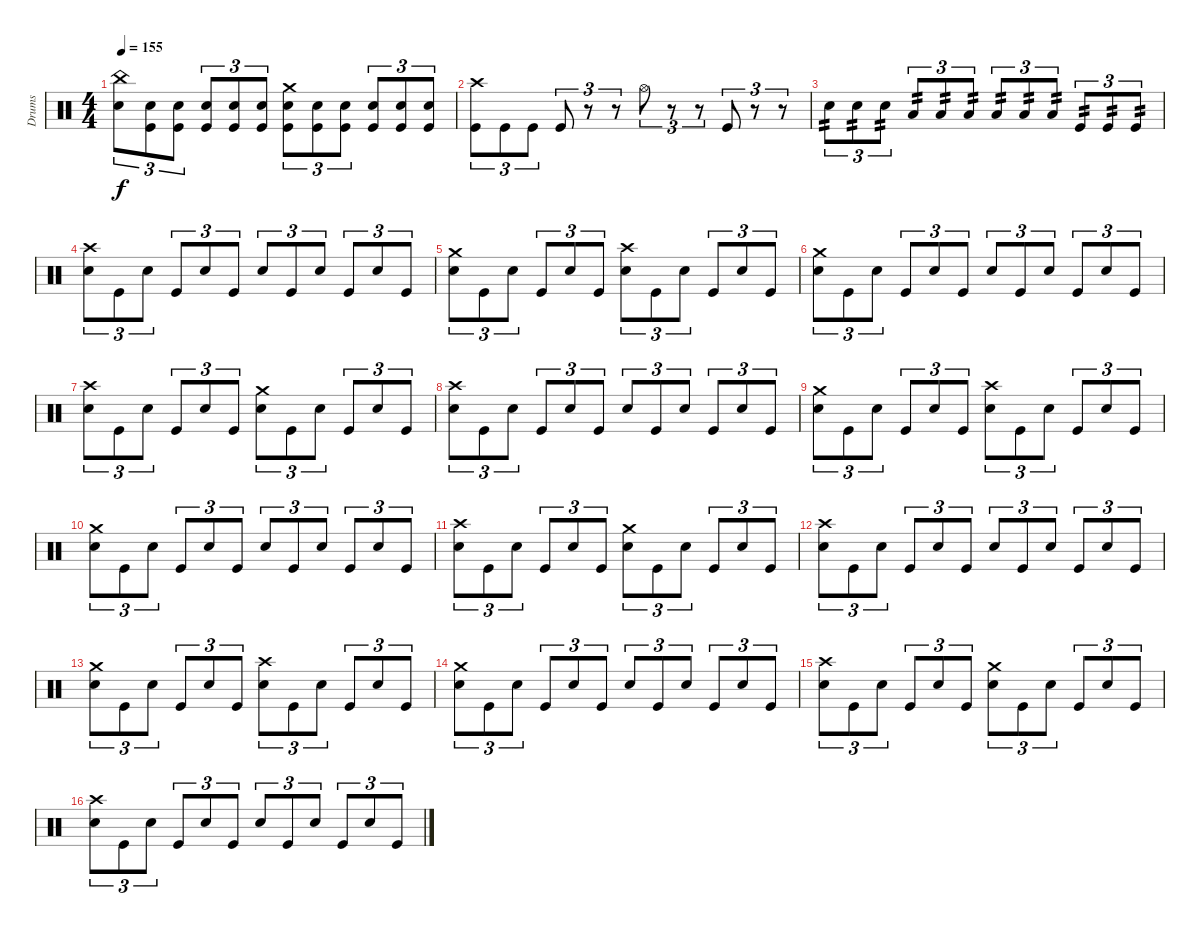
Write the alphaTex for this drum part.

\track ("Drums" "Drums") {instrument percussion}
\staff {score}
\articulation defaults
\ts (4 4)
\tempo 155
\clef neutral
\ks c
("China (hit)" "Electric Snare (hit)").8{tu (3 2) dy f} ("Electric Snare (hit)" "Kick (hit)").8{tu (3 2)} ("Electric Snare (hit)" "Kick (hit)").8{tu (3 2)} ("Electric Snare (hit)" "Kick (hit)").8{tu (3 2)} ("Electric Snare (hit)" "Kick (hit)").8{tu (3 2)} ("Electric Snare (hit)" "Kick (hit)").8{tu (3 2)} ("Crash medium (hit)" "Electric Snare (hit)" "Kick (hit)").8{tu (3 2)} ("Electric Snare (hit)" "Kick (hit)").8{tu (3 2)} ("Electric Snare (hit)" "Kick (hit)").8{tu (3 2)} ("Electric Snare (hit)" "Kick (hit)").8{tu (3 2)} ("Electric Snare (hit)" "Kick (hit)").8{tu (3 2)} ("Electric Snare (hit)" "Kick (hit)").8{tu (3 2)} |
("Crash high (hit)" "Kick (hit)").8{tu (3 2)} "Kick (hit)".8{tu (3 2)} "Kick (hit)".8{tu (3 2)} "Kick (hit)".8{tu (3 2)} r.8{tu (3 2)} r.8{tu (3 2)} "Hi-Hat (open)".8{tu (3 2)} r.8{tu (3 2)} r.8{tu (3 2)} "Kick (hit)".8{tu (3 2)} r.8{tu (3 2)} r.8{tu (3 2)} |
"Electric Snare (hit)".8{tu (3 2) tp 2} "Electric Snare (hit)".8{tu (3 2) tp 2} "Electric Snare (hit)".8{tu (3 2) tp 2} "Low Tom (hit)".8{tu (3 2) tp 2} "Low Tom (hit)".8{tu (3 2) tp 2} "Low Tom (hit)".8{tu (3 2) tp 2} "Low Floor Tom (hit)".8{tu (3 2) tp 2} "Low Floor Tom (hit)".8{tu (3 2) tp 2} "Low Floor Tom (hit)".8{tu (3 2) tp 2} "Kick (hit)".8{tu (3 2) tp 2} "Kick (hit)".8{tu (3 2) tp 2} "Kick (hit)".8{tu (3 2) tp 2} |
("Crash high (hit)" "Electric Snare (hit)").8{tu (3 2)} "Kick (hit)".8{tu (3 2)} "Electric Snare (hit)".8{tu (3 2)} "Kick (hit)".8{tu (3 2)} "Electric Snare (hit)".8{tu (3 2)} "Kick (hit)".8{tu (3 2)} "Electric Snare (hit)".8{tu (3 2)} "Kick (hit)".8{tu (3 2)} "Electric Snare (hit)".8{tu (3 2)} "Kick (hit)".8{tu (3 2)} "Electric Snare (hit)".8{tu (3 2)} "Kick (hit)".8{tu (3 2)} |
("Crash medium (hit)" "Electric Snare (hit)").8{tu (3 2)} "Kick (hit)".8{tu (3 2)} "Electric Snare (hit)".8{tu (3 2)} "Kick (hit)".8{tu (3 2)} "Electric Snare (hit)".8{tu (3 2)} "Kick (hit)".8{tu (3 2)} ("Crash high (hit)" "Electric Snare (hit)").8{tu (3 2)} "Kick (hit)".8{tu (3 2)} "Electric Snare (hit)".8{tu (3 2)} "Kick (hit)".8{tu (3 2)} "Electric Snare (hit)".8{tu (3 2)} "Kick (hit)".8{tu (3 2)} |
("Crash medium (hit)" "Electric Snare (hit)").8{tu (3 2)} "Kick (hit)".8{tu (3 2)} "Electric Snare (hit)".8{tu (3 2)} "Kick (hit)".8{tu (3 2)} "Electric Snare (hit)".8{tu (3 2)} "Kick (hit)".8{tu (3 2)} "Electric Snare (hit)".8{tu (3 2)} "Kick (hit)".8{tu (3 2)} "Electric Snare (hit)".8{tu (3 2)} "Kick (hit)".8{tu (3 2)} "Electric Snare (hit)".8{tu (3 2)} "Kick (hit)".8{tu (3 2)} |
("Crash high (hit)" "Electric Snare (hit)").8{tu (3 2)} "Kick (hit)".8{tu (3 2)} "Electric Snare (hit)".8{tu (3 2)} "Kick (hit)".8{tu (3 2)} "Electric Snare (hit)".8{tu (3 2)} "Kick (hit)".8{tu (3 2)} ("Crash medium (hit)" "Electric Snare (hit)").8{tu (3 2)} "Kick (hit)".8{tu (3 2)} "Electric Snare (hit)".8{tu (3 2)} "Kick (hit)".8{tu (3 2)} "Electric Snare (hit)".8{tu (3 2)} "Kick (hit)".8{tu (3 2)} |
("Crash high (hit)" "Electric Snare (hit)").8{tu (3 2)} "Kick (hit)".8{tu (3 2)} "Electric Snare (hit)".8{tu (3 2)} "Kick (hit)".8{tu (3 2)} "Electric Snare (hit)".8{tu (3 2)} "Kick (hit)".8{tu (3 2)} "Electric Snare (hit)".8{tu (3 2)} "Kick (hit)".8{tu (3 2)} "Electric Snare (hit)".8{tu (3 2)} "Kick (hit)".8{tu (3 2)} "Electric Snare (hit)".8{tu (3 2)} "Kick (hit)".8{tu (3 2)} |
("Crash medium (hit)" "Electric Snare (hit)").8{tu (3 2)} "Kick (hit)".8{tu (3 2)} "Electric Snare (hit)".8{tu (3 2)} "Kick (hit)".8{tu (3 2)} "Electric Snare (hit)".8{tu (3 2)} "Kick (hit)".8{tu (3 2)} ("Crash high (hit)" "Electric Snare (hit)").8{tu (3 2)} "Kick (hit)".8{tu (3 2)} "Electric Snare (hit)".8{tu (3 2)} "Kick (hit)".8{tu (3 2)} "Electric Snare (hit)".8{tu (3 2)} "Kick (hit)".8{tu (3 2)} |
("Crash medium (hit)" "Electric Snare (hit)").8{tu (3 2)} "Kick (hit)".8{tu (3 2)} "Electric Snare (hit)".8{tu (3 2)} "Kick (hit)".8{tu (3 2)} "Electric Snare (hit)".8{tu (3 2)} "Kick (hit)".8{tu (3 2)} "Electric Snare (hit)".8{tu (3 2)} "Kick (hit)".8{tu (3 2)} "Electric Snare (hit)".8{tu (3 2)} "Kick (hit)".8{tu (3 2)} "Electric Snare (hit)".8{tu (3 2)} "Kick (hit)".8{tu (3 2)} |
("Crash high (hit)" "Electric Snare (hit)").8{tu (3 2)} "Kick (hit)".8{tu (3 2)} "Electric Snare (hit)".8{tu (3 2)} "Kick (hit)".8{tu (3 2)} "Electric Snare (hit)".8{tu (3 2)} "Kick (hit)".8{tu (3 2)} ("Crash medium (hit)" "Electric Snare (hit)").8{tu (3 2)} "Kick (hit)".8{tu (3 2)} "Electric Snare (hit)".8{tu (3 2)} "Kick (hit)".8{tu (3 2)} "Electric Snare (hit)".8{tu (3 2)} "Kick (hit)".8{tu (3 2)} |
("Crash high (hit)" "Electric Snare (hit)").8{tu (3 2)} "Kick (hit)".8{tu (3 2)} "Electric Snare (hit)".8{tu (3 2)} "Kick (hit)".8{tu (3 2)} "Electric Snare (hit)".8{tu (3 2)} "Kick (hit)".8{tu (3 2)} "Electric Snare (hit)".8{tu (3 2)} "Kick (hit)".8{tu (3 2)} "Electric Snare (hit)".8{tu (3 2)} "Kick (hit)".8{tu (3 2)} "Electric Snare (hit)".8{tu (3 2)} "Kick (hit)".8{tu (3 2)} |
("Crash medium (hit)" "Electric Snare (hit)").8{tu (3 2)} "Kick (hit)".8{tu (3 2)} "Electric Snare (hit)".8{tu (3 2)} "Kick (hit)".8{tu (3 2)} "Electric Snare (hit)".8{tu (3 2)} "Kick (hit)".8{tu (3 2)} ("Crash high (hit)" "Electric Snare (hit)").8{tu (3 2)} "Kick (hit)".8{tu (3 2)} "Electric Snare (hit)".8{tu (3 2)} "Kick (hit)".8{tu (3 2)} "Electric Snare (hit)".8{tu (3 2)} "Kick (hit)".8{tu (3 2)} |
("Crash medium (hit)" "Electric Snare (hit)").8{tu (3 2)} "Kick (hit)".8{tu (3 2)} "Electric Snare (hit)".8{tu (3 2)} "Kick (hit)".8{tu (3 2)} "Electric Snare (hit)".8{tu (3 2)} "Kick (hit)".8{tu (3 2)} "Electric Snare (hit)".8{tu (3 2)} "Kick (hit)".8{tu (3 2)} "Electric Snare (hit)".8{tu (3 2)} "Kick (hit)".8{tu (3 2)} "Electric Snare (hit)".8{tu (3 2)} "Kick (hit)".8{tu (3 2)} |
("Crash high (hit)" "Electric Snare (hit)").8{tu (3 2)} "Kick (hit)".8{tu (3 2)} "Electric Snare (hit)".8{tu (3 2)} "Kick (hit)".8{tu (3 2)} "Electric Snare (hit)".8{tu (3 2)} "Kick (hit)".8{tu (3 2)} ("Crash medium (hit)" "Electric Snare (hit)").8{tu (3 2)} "Kick (hit)".8{tu (3 2)} "Electric Snare (hit)".8{tu (3 2)} "Kick (hit)".8{tu (3 2)} "Electric Snare (hit)".8{tu (3 2)} "Kick (hit)".8{tu (3 2)} |
("Crash high (hit)" "Electric Snare (hit)").8{tu (3 2)} "Kick (hit)".8{tu (3 2)} "Electric Snare (hit)".8{tu (3 2)} "Kick (hit)".8{tu (3 2)} "Electric Snare (hit)".8{tu (3 2)} "Kick (hit)".8{tu (3 2)} "Electric Snare (hit)".8{tu (3 2)} "Kick (hit)".8{tu (3 2)} "Electric Snare (hit)".8{tu (3 2)} "Kick (hit)".8{tu (3 2)} "Electric Snare (hit)".8{tu (3 2)} "Kick (hit)".8{tu (3 2)}
